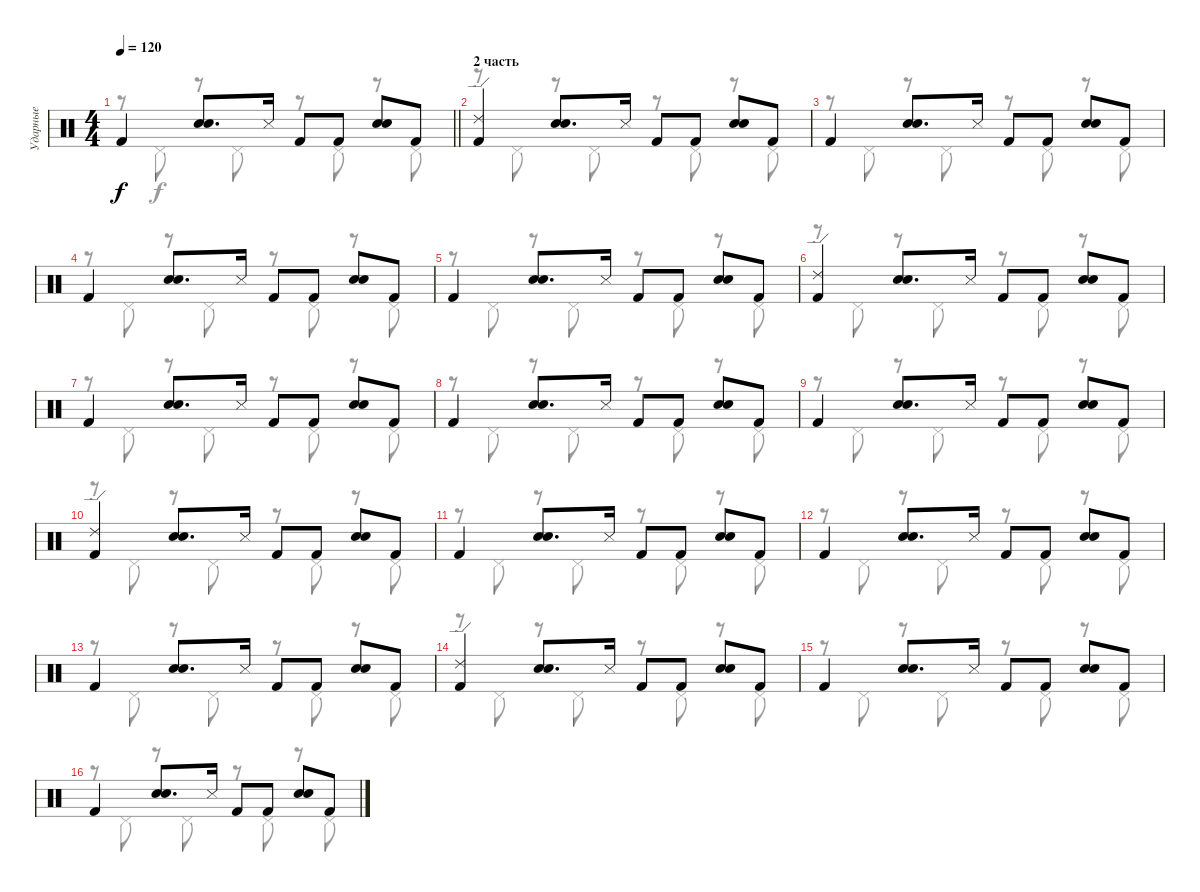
\track ("Ударные" "Ударные") {instrument percussion}
\staff {score}
\articulation defaults
\voice
\ts (4 4)
\tempo 120
\clef neutral
\barLineRight lightlight
\ks c "Kick (hit) 2".4{dy f}
("Hand Clap (hit)" "Snare (hit) 2").8{d} "Metronome (hit)".16 "Kick (hit) 2".8 "Kick (hit) 2".8 ("Hand Clap (hit)" "Snare (hit) 2").8 "Kick (hit) 2".8 |
\section ("" "2 часть")
("Kick (hit) 2" "Ride (edge) 2").4 ("Hand Clap (hit)" "Snare (hit) 2").8{d} "Metronome (hit)".16 "Kick (hit) 2".8 "Kick (hit) 2".8 ("Hand Clap (hit)" "Snare (hit) 2").8 "Kick (hit) 2".8 |
"Kick (hit) 2".4 ("Hand Clap (hit)" "Snare (hit) 2").8{d} "Metronome (hit)".16 "Kick (hit) 2".8 "Kick (hit) 2".8 ("Hand Clap (hit)" "Snare (hit) 2").8 "Kick (hit) 2".8 |
"Kick (hit) 2".4 ("Hand Clap (hit)" "Snare (hit) 2").8{d} "Metronome (hit)".16 "Kick (hit) 2".8 "Kick (hit) 2".8 ("Hand Clap (hit)" "Snare (hit) 2").8 "Kick (hit) 2".8 |
"Kick (hit) 2".4 ("Hand Clap (hit)" "Snare (hit) 2").8{d} "Metronome (hit)".16 "Kick (hit) 2".8 "Kick (hit) 2".8 ("Hand Clap (hit)" "Snare (hit) 2").8 "Kick (hit) 2".8 |
("Kick (hit) 2" "Ride (edge) 2").4 ("Hand Clap (hit)" "Snare (hit) 2").8{d} "Metronome (hit)".16 "Kick (hit) 2".8 "Kick (hit) 2".8 ("Hand Clap (hit)" "Snare (hit) 2").8 "Kick (hit) 2".8 |
"Kick (hit) 2".4 ("Hand Clap (hit)" "Snare (hit) 2").8{d} "Metronome (hit)".16 "Kick (hit) 2".8 "Kick (hit) 2".8 ("Hand Clap (hit)" "Snare (hit) 2").8 "Kick (hit) 2".8 |
"Kick (hit) 2".4 ("Hand Clap (hit)" "Snare (hit) 2").8{d} "Metronome (hit)".16 "Kick (hit) 2".8 "Kick (hit) 2".8 ("Hand Clap (hit)" "Snare (hit) 2").8 "Kick (hit) 2".8 |
"Kick (hit) 2".4 ("Hand Clap (hit)" "Snare (hit) 2").8{d} "Metronome (hit)".16 "Kick (hit) 2".8 "Kick (hit) 2".8 ("Hand Clap (hit)" "Snare (hit) 2").8 "Kick (hit) 2".8 |
("Kick (hit) 2" "Ride (edge) 2").4 ("Hand Clap (hit)" "Snare (hit) 2").8{d} "Metronome (hit)".16 "Kick (hit) 2".8 "Kick (hit) 2".8 ("Hand Clap (hit)" "Snare (hit) 2").8 "Kick (hit) 2".8 |
"Kick (hit) 2".4 ("Hand Clap (hit)" "Snare (hit) 2").8{d} "Metronome (hit)".16 "Kick (hit) 2".8 "Kick (hit) 2".8 ("Hand Clap (hit)" "Snare (hit) 2").8 "Kick (hit) 2".8 |
"Kick (hit) 2".4 ("Hand Clap (hit)" "Snare (hit) 2").8{d} "Metronome (hit)".16 "Kick (hit) 2".8 "Kick (hit) 2".8 ("Hand Clap (hit)" "Snare (hit) 2").8 "Kick (hit) 2".8 |
"Kick (hit) 2".4 ("Hand Clap (hit)" "Snare (hit) 2").8{d} "Metronome (hit)".16 "Kick (hit) 2".8 "Kick (hit) 2".8 ("Hand Clap (hit)" "Snare (hit) 2").8 "Kick (hit) 2".8 |
("Kick (hit) 2" "Ride (edge) 2").4 ("Hand Clap (hit)" "Snare (hit) 2").8{d} "Metronome (hit)".16 "Kick (hit) 2".8 "Kick (hit) 2".8 ("Hand Clap (hit)" "Snare (hit) 2").8 "Kick (hit) 2".8 |
"Kick (hit) 2".4 ("Hand Clap (hit)" "Snare (hit) 2").8{d} "Metronome (hit)".16 "Kick (hit) 2".8 "Kick (hit) 2".8 ("Hand Clap (hit)" "Snare (hit) 2").8 "Kick (hit) 2".8 |
"Kick (hit) 2".4 ("Hand Clap (hit)" "Snare (hit) 2").8{d} "Metronome (hit)".16 "Kick (hit) 2".8 "Kick (hit) 2".8 ("Hand Clap (hit)" "Snare (hit) 2").8 "Kick (hit) 2".8
\voice
\clef neutral
\ottava regular
\simile none
\barLineRight lightlight
\ks c
r.8{dy f} "Pedal Hi-Hat (hit)".8 r.8 "Pedal Hi-Hat (hit)".8 r.8 "Pedal Hi-Hat (hit)".8 r.8 "Pedal Hi-Hat (hit)".8 |
r.8 "Pedal Hi-Hat (hit)".8 r.8 "Pedal Hi-Hat (hit)".8 r.8 "Pedal Hi-Hat (hit)".8 r.8 "Pedal Hi-Hat (hit)".8 |
r.8 "Pedal Hi-Hat (hit)".8 r.8 "Pedal Hi-Hat (hit)".8 r.8 "Pedal Hi-Hat (hit)".8 r.8 "Pedal Hi-Hat (hit)".8 |
r.8 "Pedal Hi-Hat (hit)".8 r.8 "Pedal Hi-Hat (hit)".8 r.8 "Pedal Hi-Hat (hit)".8 r.8 "Pedal Hi-Hat (hit)".8 |
r.8 "Pedal Hi-Hat (hit)".8 r.8 "Pedal Hi-Hat (hit)".8 r.8 "Pedal Hi-Hat (hit)".8 r.8 "Pedal Hi-Hat (hit)".8 |
r.8 "Pedal Hi-Hat (hit)".8 r.8 "Pedal Hi-Hat (hit)".8 r.8 "Pedal Hi-Hat (hit)".8 r.8 "Pedal Hi-Hat (hit)".8 |
r.8 "Pedal Hi-Hat (hit)".8 r.8 "Pedal Hi-Hat (hit)".8 r.8 "Pedal Hi-Hat (hit)".8 r.8 "Pedal Hi-Hat (hit)".8 |
r.8 "Pedal Hi-Hat (hit)".8 r.8 "Pedal Hi-Hat (hit)".8 r.8 "Pedal Hi-Hat (hit)".8 r.8 "Pedal Hi-Hat (hit)".8 |
r.8 "Pedal Hi-Hat (hit)".8 r.8 "Pedal Hi-Hat (hit)".8 r.8 "Pedal Hi-Hat (hit)".8 r.8 "Pedal Hi-Hat (hit)".8 |
r.8 "Pedal Hi-Hat (hit)".8 r.8 "Pedal Hi-Hat (hit)".8 r.8 "Pedal Hi-Hat (hit)".8 r.8 "Pedal Hi-Hat (hit)".8 |
r.8 "Pedal Hi-Hat (hit)".8 r.8 "Pedal Hi-Hat (hit)".8 r.8 "Pedal Hi-Hat (hit)".8 r.8 "Pedal Hi-Hat (hit)".8 |
r.8 "Pedal Hi-Hat (hit)".8 r.8 "Pedal Hi-Hat (hit)".8 r.8 "Pedal Hi-Hat (hit)".8 r.8 "Pedal Hi-Hat (hit)".8 |
r.8 "Pedal Hi-Hat (hit)".8 r.8 "Pedal Hi-Hat (hit)".8 r.8 "Pedal Hi-Hat (hit)".8 r.8 "Pedal Hi-Hat (hit)".8 |
r.8 "Pedal Hi-Hat (hit)".8 r.8 "Pedal Hi-Hat (hit)".8 r.8 "Pedal Hi-Hat (hit)".8 r.8 "Pedal Hi-Hat (hit)".8 |
r.8 "Pedal Hi-Hat (hit)".8 r.8 "Pedal Hi-Hat (hit)".8 r.8 "Pedal Hi-Hat (hit)".8 r.8 "Pedal Hi-Hat (hit)".8 |
r.8 "Pedal Hi-Hat (hit)".8 r.8 "Pedal Hi-Hat (hit)".8 r.8 "Pedal Hi-Hat (hit)".8 r.8 "Pedal Hi-Hat (hit)".8
